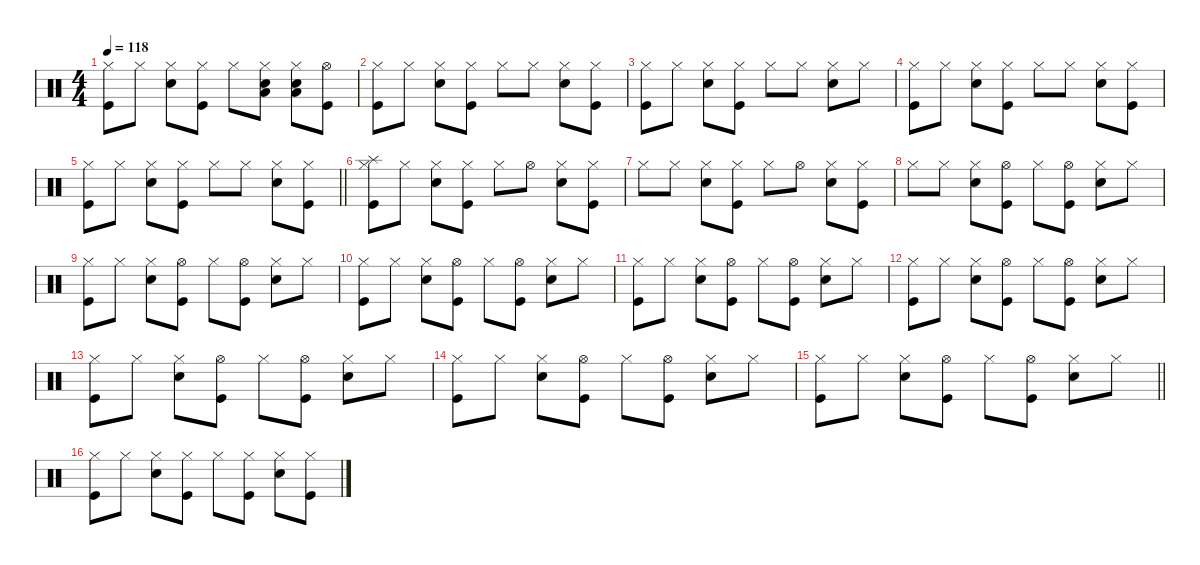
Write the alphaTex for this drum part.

\defaultSystemsLayout 4
\hideDynamics
\bracketExtendMode nobrackets
\singleTrackTrackNamePolicy hidden
\multiTrackTrackNamePolicy hidden
\firstSystemTrackNameMode fullname
\otherSystemsTrackNameOrientation horizontal
\track ("Drums" "drm.") {instrument percussion}
\staff {score}
\articulation defaults
\ts (4 4)
\tempo 118
\clef neutral
\ks c
("Hi-Hat (closed)" "Kick (hit)").8{dy f beam Down} "Hi-Hat (closed)".8{beam Down} ("Hi-Hat (closed)" "Snare (hit) 2").8{beam Down} ("Hi-Hat (closed)" "Kick (hit)").8{beam Down} "Hi-Hat (closed)".8{beam Down} ("Hi-Hat (closed)" "Snare (hit) 2" "Low Floor Tom (hit)").8{beam Down} ("Hi-Hat (closed)" "Snare (hit) 2" "Low Floor Tom (hit)").8{beam Down} ("Hi-Hat (open)" "Kick (hit)").8{beam Down} |
("Hi-Hat (closed)" "Kick (hit)").8{beam Down} "Hi-Hat (closed)".8{beam Down} ("Hi-Hat (closed)" "Snare (hit) 2").8{beam Down} ("Hi-Hat (closed)" "Kick (hit)").8{beam Down} "Hi-Hat (closed)".8{beam Down} "Hi-Hat (closed)".8{beam Down} ("Hi-Hat (closed)" "Snare (hit) 2").8{beam Down} ("Hi-Hat (closed)" "Kick (hit)").8{beam Down} |
("Hi-Hat (closed)" "Kick (hit)").8{beam Down} "Hi-Hat (closed)".8{beam Down} ("Hi-Hat (closed)" "Snare (hit) 2").8{beam Down} ("Hi-Hat (closed)" "Kick (hit)").8{beam Down} "Hi-Hat (closed)".8{beam Down} "Hi-Hat (closed)".8{beam Down} ("Hi-Hat (closed)" "Snare (hit) 2").8{beam Down} "Hi-Hat (closed)".8{beam Down} |
("Hi-Hat (closed)" "Kick (hit)").8{beam Down} "Hi-Hat (closed)".8{beam Down} ("Hi-Hat (closed)" "Snare (hit) 2").8{beam Down} ("Hi-Hat (closed)" "Kick (hit)").8{beam Down} "Hi-Hat (closed)".8{beam Down} "Hi-Hat (closed)".8{beam Down} ("Hi-Hat (closed)" "Snare (hit) 2").8{beam Down} ("Hi-Hat (closed)" "Kick (hit)").8{beam Down} |
\barLineRight lightlight
("Hi-Hat (closed)" "Kick (hit)").8{beam Down} "Hi-Hat (closed)".8{beam Down} ("Hi-Hat (closed)" "Snare (hit) 2").8{beam Down} ("Hi-Hat (closed)" "Kick (hit)").8{beam Down} "Hi-Hat (closed)".8{beam Down} "Hi-Hat (closed)".8{beam Down} ("Hi-Hat (closed)" "Snare (hit) 2").8{beam Down} ("Hi-Hat (closed)" "Kick (hit)").8{beam Down} |
("Hi-Hat (closed)" "Splash (hit)" "Kick (hit)").8{beam Down} "Hi-Hat (closed)".8{beam Down} ("Hi-Hat (closed)" "Snare (hit) 2").8{beam Down} ("Hi-Hat (closed)" "Kick (hit)").8{beam Down} "Hi-Hat (closed)".8{beam Down} "Hi-Hat (open)".8{beam Down} ("Hi-Hat (closed)" "Snare (hit) 2").8{beam Down} ("Hi-Hat (closed)" "Kick (hit)").8{beam Down} |
"Hi-Hat (closed)".8{beam Down} "Hi-Hat (closed)".8{beam Down} ("Hi-Hat (closed)" "Snare (hit) 2").8{beam Down} ("Hi-Hat (closed)" "Kick (hit)").8{beam Down} "Hi-Hat (closed)".8{beam Down} "Hi-Hat (open)".8{beam Down} ("Hi-Hat (closed)" "Snare (hit) 2").8{beam Down} ("Hi-Hat (closed)" "Kick (hit)").8{beam Down} |
"Hi-Hat (closed)".8{beam Down} "Hi-Hat (closed)".8{beam Down} ("Hi-Hat (closed)" "Snare (hit) 2").8{beam Down} ("Hi-Hat (open)" "Kick (hit)").8{beam Down} "Hi-Hat (closed)".8{beam Down} ("Hi-Hat (open)" "Kick (hit)").8{beam Down} ("Hi-Hat (closed)" "Snare (hit) 2").8{beam Down} "Hi-Hat (closed)".8{beam Down} |
("Hi-Hat (closed)" "Kick (hit)").8{beam Down} "Hi-Hat (closed)".8{beam Down} ("Hi-Hat (closed)" "Snare (hit) 2").8{beam Down} ("Hi-Hat (open)" "Kick (hit)").8{beam Down} "Hi-Hat (closed)".8{beam Down} ("Hi-Hat (open)" "Kick (hit)").8{beam Down} ("Hi-Hat (closed)" "Snare (hit) 2").8{beam Down} "Hi-Hat (closed)".8{beam Down} |
("Hi-Hat (closed)" "Kick (hit)").8{beam Down} "Hi-Hat (closed)".8{beam Down} ("Hi-Hat (closed)" "Snare (hit) 2").8{beam Down} ("Hi-Hat (open)" "Kick (hit)").8{beam Down} "Hi-Hat (closed)".8{beam Down} ("Hi-Hat (open)" "Kick (hit)").8{beam Down} ("Hi-Hat (closed)" "Snare (hit) 2").8{beam Down} "Hi-Hat (closed)".8{beam Down} |
("Hi-Hat (closed)" "Kick (hit)").8{beam Down} "Hi-Hat (closed)".8{beam Down} ("Hi-Hat (closed)" "Snare (hit) 2").8{beam Down} ("Hi-Hat (open)" "Kick (hit)").8{beam Down} "Hi-Hat (closed)".8{beam Down} ("Hi-Hat (open)" "Kick (hit)").8{beam Down} ("Hi-Hat (closed)" "Snare (hit) 2").8{beam Down} "Hi-Hat (closed)".8{beam Down} |
("Hi-Hat (closed)" "Kick (hit)").8{beam Down} "Hi-Hat (closed)".8{beam Down} ("Hi-Hat (closed)" "Snare (hit) 2").8{beam Down} ("Hi-Hat (open)" "Kick (hit)").8{beam Down} "Hi-Hat (closed)".8{beam Down} ("Hi-Hat (open)" "Kick (hit)").8{beam Down} ("Hi-Hat (closed)" "Snare (hit) 2").8{beam Down} "Hi-Hat (closed)".8{beam Down} |
("Hi-Hat (closed)" "Kick (hit)").8{beam Down} "Hi-Hat (closed)".8{beam Down} ("Hi-Hat (closed)" "Snare (hit) 2").8{beam Down} ("Hi-Hat (open)" "Kick (hit)").8{beam Down} "Hi-Hat (closed)".8{beam Down} ("Hi-Hat (open)" "Kick (hit)").8{beam Down} ("Hi-Hat (closed)" "Snare (hit) 2").8{beam Down} "Hi-Hat (closed)".8{beam Down} |
("Hi-Hat (closed)" "Kick (hit)").8{beam Down} "Hi-Hat (closed)".8{beam Down} ("Hi-Hat (closed)" "Snare (hit) 2").8{beam Down} ("Hi-Hat (open)" "Kick (hit)").8{beam Down} "Hi-Hat (closed)".8{beam Down} ("Hi-Hat (open)" "Kick (hit)").8{beam Down} ("Hi-Hat (closed)" "Snare (hit) 2").8{beam Down} "Hi-Hat (closed)".8{beam Down} |
\barLineRight lightlight
("Hi-Hat (closed)" "Kick (hit)").8{beam Down} "Hi-Hat (closed)".8{dy p beam Down} ("Hi-Hat (closed)" "Snare (hit) 2").8{beam Down} ("Hi-Hat (open)" "Kick (hit)").8{beam Down} "Hi-Hat (closed)".8{beam Down} ("Hi-Hat (open)" "Kick (hit)").8{beam Down} ("Hi-Hat (closed)" "Snare (hit) 2").8{beam Down} "Hi-Hat (closed)".8{beam Down} |
("Hi-Hat (closed)" "Kick (hit)").8{dy f beam Down} "Hi-Hat (closed)".8{beam Down} ("Hi-Hat (closed)" "Snare (hit) 2").8{beam Down} ("Hi-Hat (closed)" "Kick (hit)").8{beam Down} "Hi-Hat (closed)".8{beam Down} ("Hi-Hat (closed)" "Kick (hit)").8{beam Down} ("Hi-Hat (closed)" "Snare (hit) 2").8{beam Down} ("Hi-Hat (closed)" "Kick (hit)").8{beam Down}
